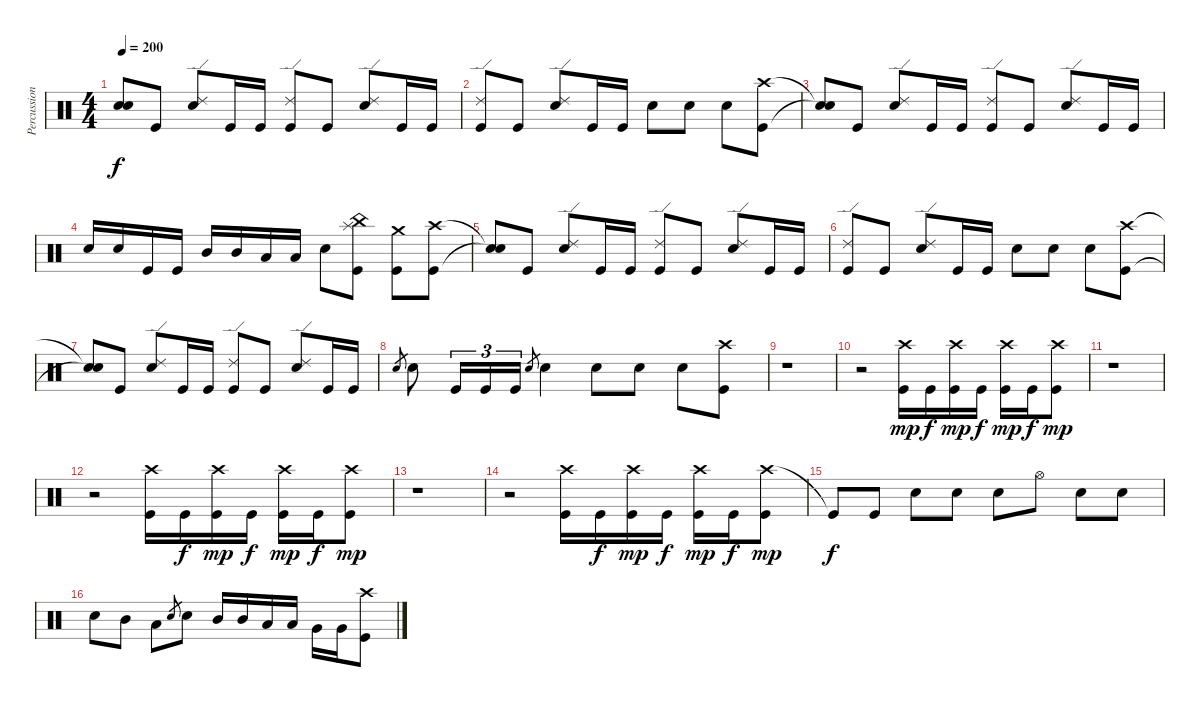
\track ("Percussioni" "Percussion") {instrument percussion}
\staff {score}
\articulation defaults
\ts (4 4)
\tempo 200
\clef neutral
\ks c
("Snare (hit)"{t} "Snare (hit)"{t}).8{dy f} "Kick (hit)".8 ("Ride (edge) 2" "Electric Snare (hit)").8 "Kick (hit)".16 "Kick (hit)".16 ("Ride (edge) 2" "Kick (hit)").8 "Kick (hit)".8 ("Ride (edge) 2" "Electric Snare (hit)").8 "Kick (hit)".16 "Kick (hit)".16 |
("Ride (edge) 2" "Kick (hit)").8 "Kick (hit)".8 ("Ride (edge) 2" "Electric Snare (hit)").8 "Kick (hit)".16 "Kick (hit)".16 "Electric Snare (hit)".8 "Electric Snare (hit)".8 "Electric Snare (hit)".8 ("Crash high (hit)" "Kick (hit)").8 |
("Snare (hit)"{t} "Snare (hit)"{t}).8 "Kick (hit)".8 ("Ride (edge) 2" "Electric Snare (hit)").8 "Kick (hit)".16 "Kick (hit)".16 ("Ride (edge) 2" "Kick (hit)").8 "Kick (hit)".8 ("Ride (edge) 2" "Electric Snare (hit)").8 "Kick (hit)".16 "Kick (hit)".16 |
"Electric Snare (hit)".16 "Electric Snare (hit)".16 "Kick (hit)".16 "Kick (hit)".16 "Mid Tom (hit)".16 "Mid Tom (hit)".16 "Low Tom (hit)".16 "Low Tom (hit)".16 "Electric Snare (hit)".8 ("Splash (hit)" "China (hit)" "Kick (hit)").8 ("Crash medium (hit)" "Kick (hit)").8 ("Crash high (hit)" "Kick (hit)").8 |
("Snare (hit)"{t} "Snare (hit)"{t}).8 "Kick (hit)".8 ("Ride (edge) 2" "Electric Snare (hit)").8 "Kick (hit)".16 "Kick (hit)".16 ("Ride (edge) 2" "Kick (hit)").8 "Kick (hit)".8 ("Ride (edge) 2" "Electric Snare (hit)").8 "Kick (hit)".16 "Kick (hit)".16 |
("Ride (edge) 2" "Kick (hit)").8 "Kick (hit)".8 ("Ride (edge) 2" "Electric Snare (hit)").8 "Kick (hit)".16 "Kick (hit)".16 "Electric Snare (hit)".8 "Electric Snare (hit)".8 "Electric Snare (hit)".8 ("Crash high (hit)" "Kick (hit)").8 |
("Snare (hit)"{t} "Snare (hit)"{t}).8 "Kick (hit)".8 ("Ride (edge) 2" "Electric Snare (hit)").8 "Kick (hit)".16 "Kick (hit)".16 ("Ride (edge) 2" "Kick (hit)").8 "Kick (hit)".8 ("Ride (edge) 2" "Electric Snare (hit)").8 "Kick (hit)".16 "Kick (hit)".16 |
"Electric Snare (hit)".8{gr} "Electric Snare (hit)".8 "Kick (hit)".16{tu (3 2)} "Kick (hit)".16{tu (3 2)} "Kick (hit)".16{tu (3 2)} "Electric Snare (hit)".8{gr} "Electric Snare (hit)".4 "Electric Snare (hit)".8 "Electric Snare (hit)".8 "Electric Snare (hit)".8 ("Crash high (hit)" "Kick (hit)").8 |
r.1 |
r.2 ("Crash high (hit)" "Kick (hit)").16{dy mp} "Kick (hit)".16{dy f} ("Crash high (hit)" "Kick (hit)").16{dy mp} "Kick (hit)".16{dy f} ("Crash high (hit)" "Kick (hit)").16{dy mp} "Kick (hit)".16{dy f} ("Crash high (hit)" "Kick (hit)").8{dy mp} |
r.1 |
r.2 ("Crash high (hit)" "Kick (hit)").16 "Kick (hit)".16{dy f} ("Crash high (hit)" "Kick (hit)").16{dy mp} "Kick (hit)".16{dy f} ("Crash high (hit)" "Kick (hit)").16{dy mp} "Kick (hit)".16{dy f} ("Crash high (hit)" "Kick (hit)").8{dy mp} |
r.1 |
r.2 ("Crash high (hit)" "Kick (hit)").16 "Kick (hit)".16{dy f} ("Crash high (hit)" "Kick (hit)").16{dy mp} "Kick (hit)".16{dy f} ("Crash high (hit)" "Kick (hit)").16{dy mp} "Kick (hit)".16{dy f} ("Crash high (hit)" "Kick (hit)").8{dy mp} |
"Kick (hit)"{t}.8{dy f} "Kick (hit)".8 "Electric Snare (hit)".8 "Electric Snare (hit)".8 "Electric Snare (hit)".8 "Hi-Hat (open)".8 "Electric Snare (hit)".8 "Electric Snare (hit)".8 |
"Electric Snare (hit)".8 "Mid Tom (hit)".8 "Low Tom (hit)".8 "Electric Snare (hit)".8{gr} "Electric Snare (hit)".8 "Mid Tom (hit)".16 "Mid Tom (hit)".16 "Low Tom (hit)".16 "Low Tom (hit)".16 "Very Low Tom (hit)".16 "Very Low Tom (hit)".16 ("Crash high (hit)" "Kick (hit)").8
